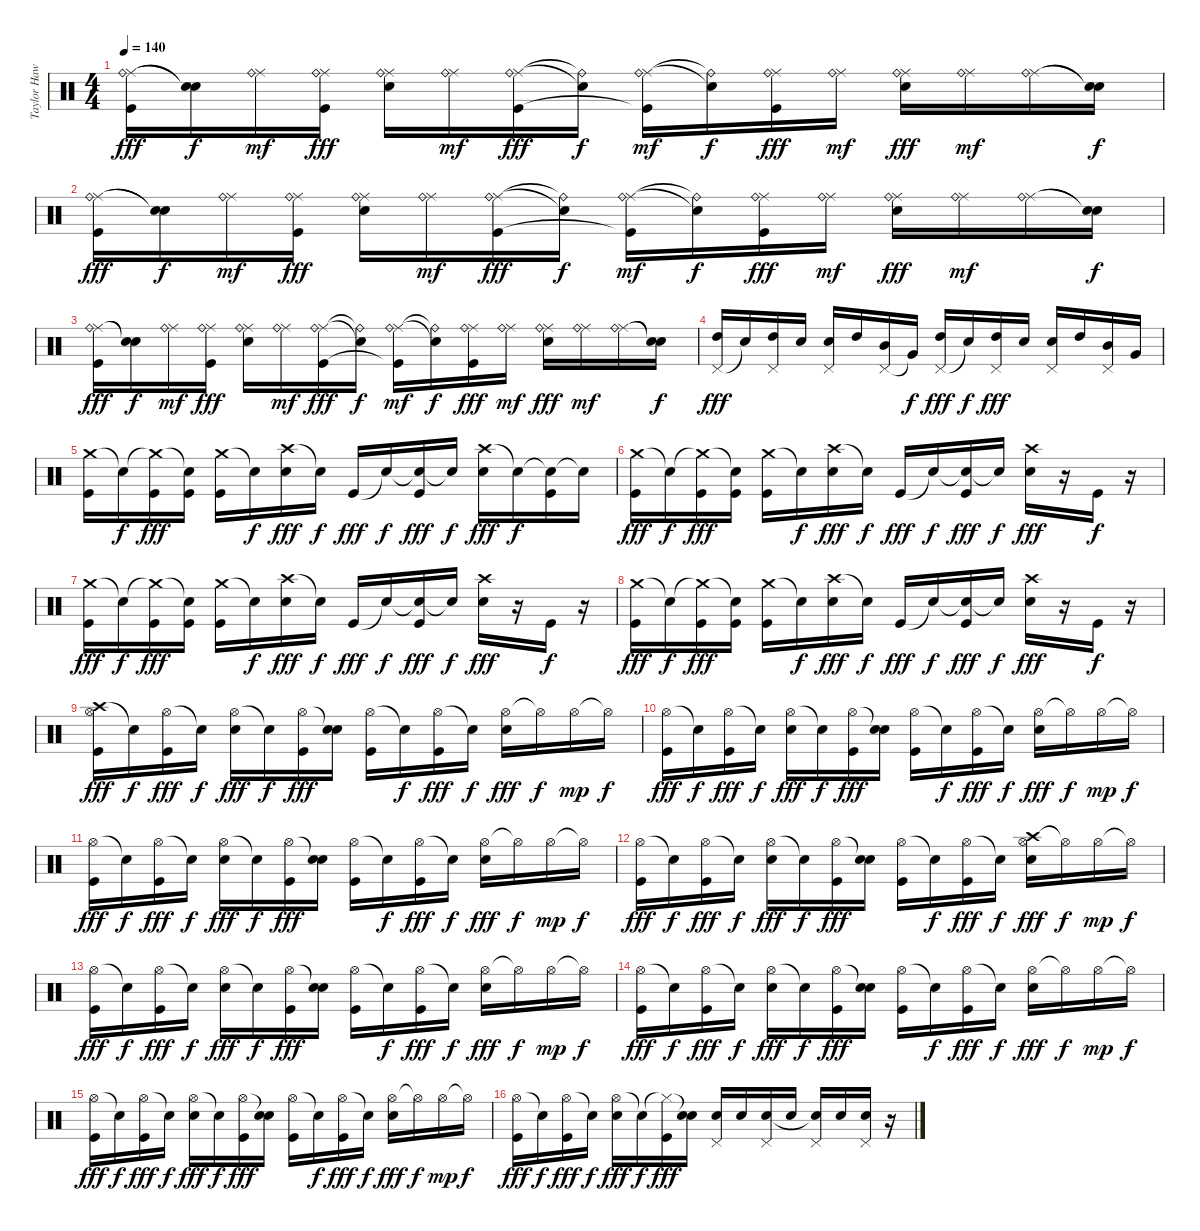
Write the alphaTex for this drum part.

\track ("Taylor Hawkings (Batería)" "Taylor Haw") {instrument percussion}
\staff {score}
\articulation defaults
\ts (4 4)
\tempo 140
\clef neutral
\ks c
("Ride (middle)" "Ride (bell)" "Kick (hit)").16{dy fff} ("Snare (hit)"{t} "Snare (hit)"{t}).16{dy f} ("Ride (middle)" "Ride (bell)").16{dy mf} ("Ride (middle)" "Ride (bell)" "Kick (hit)").16{dy fff} ("Ride (middle)" "Ride (bell)" "Electric Snare (hit)").16 ("Ride (middle)" "Ride (bell)").16{dy mf} ("Ride (middle)" "Ride (bell)" "Kick (hit)").16{dy fff} ("Snare (hit)"{t} "Ride (bell)"{t}).16{dy f} ("Ride (middle)" "Ride (bell)" "Kick (hit)"{t}).16{dy mf} ("Snare (hit)"{t} "Ride (bell)"{t}).16{dy f} ("Ride (middle)" "Ride (bell)" "Kick (hit)").16{dy fff} ("Ride (middle)" "Ride (bell)").16{dy mf} ("Ride (middle)" "Ride (bell)" "Electric Snare (hit)").16{dy fff} ("Ride (middle)" "Ride (bell)").16{dy mf} ("Ride (middle)" "Ride (bell)").16 ("Snare (hit)"{t} "Snare (hit)"{t}).16{dy f} |
("Ride (middle)" "Ride (bell)" "Kick (hit)").16{dy fff} ("Snare (hit)"{t} "Snare (hit)"{t}).16{dy f} ("Ride (middle)" "Ride (bell)").16{dy mf} ("Ride (middle)" "Ride (bell)" "Kick (hit)").16{dy fff} ("Ride (middle)" "Ride (bell)" "Electric Snare (hit)").16 ("Ride (middle)" "Ride (bell)").16{dy mf} ("Ride (middle)" "Ride (bell)" "Kick (hit)").16{dy fff} ("Snare (hit)"{t} "Ride (bell)"{t}).16{dy f} ("Ride (middle)" "Ride (bell)" "Kick (hit)"{t}).16{dy mf} ("Snare (hit)"{t} "Ride (bell)"{t}).16{dy f} ("Ride (middle)" "Ride (bell)" "Kick (hit)").16{dy fff} ("Ride (middle)" "Ride (bell)").16{dy mf} ("Ride (middle)" "Ride (bell)" "Electric Snare (hit)").16{dy fff} ("Ride (middle)" "Ride (bell)").16{dy mf} ("Ride (middle)" "Ride (bell)").16 ("Snare (hit)"{t} "Snare (hit)"{t}).16{dy f} |
("Ride (middle)" "Ride (bell)" "Kick (hit)").16{dy fff} ("Snare (hit)"{t} "Snare (hit)"{t}).16{dy f} ("Ride (middle)" "Ride (bell)").16{dy mf} ("Ride (middle)" "Ride (bell)" "Kick (hit)").16{dy fff} ("Ride (middle)" "Ride (bell)" "Electric Snare (hit)").16 ("Ride (middle)" "Ride (bell)").16{dy mf} ("Ride (middle)" "Ride (bell)" "Kick (hit)").16{dy fff} ("Snare (hit)"{t} "Ride (bell)"{t}).16{dy f} ("Ride (middle)" "Ride (bell)" "Kick (hit)"{t}).16{dy mf} ("Snare (hit)"{t} "Ride (bell)"{t}).16{dy f} ("Ride (middle)" "Ride (bell)" "Kick (hit)").16{dy fff} ("Ride (middle)" "Ride (bell)").16{dy mf} ("Ride (middle)" "Ride (bell)" "Electric Snare (hit)").16{dy fff} ("Ride (middle)" "Ride (bell)").16{dy mf} ("Ride (middle)" "Ride (bell)").16 ("Snare (hit)"{t} "Snare (hit)"{t}).16{dy f} |
("Pedal Hi-Hat (hit)" "High Tom (hit)").16{dy fff} "Snare (hit)"{t}.16 ("Pedal Hi-Hat (hit)" "High Tom (hit)").16 "Electric Snare (hit)".16 ("Pedal Hi-Hat (hit)" "Electric Snare (hit)").16 "High Tom (hit)".16 ("Pedal Hi-Hat (hit)" "Mid Tom (hit)").16 "Very Low Tom (hit)"{t}.16{dy f} ("Pedal Hi-Hat (hit)" "High Tom (hit)").16{dy fff} "Snare (hit)"{t}.16{dy f} ("Pedal Hi-Hat (hit)" "High Tom (hit)").16{dy fff} "Electric Snare (hit)".16 ("Pedal Hi-Hat (hit)" "Electric Snare (hit)").16 "High Tom (hit)".16 ("Pedal Hi-Hat (hit)" "Mid Tom (hit)").16 "Very Low Tom (hit)".16 |
("Crash medium (hit)" "Kick (hit)").16 "Snare (hit)"{t}.16{dy f} ("Crash medium (hit)"{t} "Kick (hit)").16{dy fff} ("Snare (hit)"{t} "Kick (hit)").16 ("Crash medium (hit)" "Kick (hit)").16 "Snare (hit)"{t}.16{dy f} ("Crash high (hit)" "Electric Snare (hit)").16{dy fff} "Snare (hit)"{t}.16{dy f} "Kick (hit)".16{dy fff} "Snare (hit)"{t}.16{dy f} ("Snare (hit)"{t} "Kick (hit)").16{dy fff} "Snare (hit)"{t}.16{dy f} ("Crash high (hit)" "Electric Snare (hit)").16{dy fff} "Snare (hit)"{t}.16{dy f} ("Snare (hit)"{t} "Kick (hit)").16 "Snare (hit)"{t}.16 |
("Crash medium (hit)" "Kick (hit)").16{dy fff} "Snare (hit)"{t}.16{dy f} ("Crash medium (hit)"{t} "Kick (hit)").16{dy fff} ("Snare (hit)"{t} "Kick (hit)").16 ("Crash medium (hit)" "Kick (hit)").16 "Snare (hit)"{t}.16{dy f} ("Crash high (hit)" "Electric Snare (hit)").16{dy fff} "Snare (hit)"{t}.16{dy f} "Kick (hit)".16{dy fff} "Snare (hit)"{t}.16{dy f} ("Snare (hit)"{t} "Kick (hit)").16{dy fff} "Snare (hit)"{t}.16{dy f} ("Crash high (hit)" "Electric Snare (hit)").16{dy fff} r.16 "Kick (hit)".16{dy f} r.16 |
("Crash medium (hit)" "Kick (hit)").16{dy fff} "Snare (hit)"{t}.16{dy f} ("Crash medium (hit)"{t} "Kick (hit)").16{dy fff} ("Snare (hit)"{t} "Kick (hit)").16 ("Crash medium (hit)" "Kick (hit)").16 "Snare (hit)"{t}.16{dy f} ("Crash high (hit)" "Electric Snare (hit)").16{dy fff} "Snare (hit)"{t}.16{dy f} "Kick (hit)".16{dy fff} "Snare (hit)"{t}.16{dy f} ("Snare (hit)"{t} "Kick (hit)").16{dy fff} "Snare (hit)"{t}.16{dy f} ("Crash high (hit)" "Electric Snare (hit)").16{dy fff} r.16 "Kick (hit)".16{dy f} r.16 |
("Crash medium (hit)" "Kick (hit)").16{dy fff} "Snare (hit)"{t}.16{dy f} ("Crash medium (hit)"{t} "Kick (hit)").16{dy fff} ("Snare (hit)"{t} "Kick (hit)").16 ("Crash medium (hit)" "Kick (hit)").16 "Snare (hit)"{t}.16{dy f} ("Crash high (hit)" "Electric Snare (hit)").16{dy fff} "Snare (hit)"{t}.16{dy f} "Kick (hit)".16{dy fff} "Snare (hit)"{t}.16{dy f} ("Snare (hit)"{t} "Kick (hit)").16{dy fff} "Snare (hit)"{t}.16{dy f} ("Crash high (hit)" "Electric Snare (hit)").16{dy fff} r.16 "Kick (hit)".16{dy f} r.16 |
("Crash high (hit)" "Hi-Hat (open)" "Kick (hit)").16{dy fff} "Snare (hit)"{t}.16{dy f} ("Hi-Hat (open)" "Kick (hit)").16{dy fff} "Snare (hit)"{t}.16{dy f} ("Hi-Hat (open)" "Electric Snare (hit)").16{dy fff} "Snare (hit)"{t}.16{dy f} ("Hi-Hat (open)" "Kick (hit)").16{dy fff} ("Snare (hit)"{t} "Electric Snare (hit)").16 ("Hi-Hat (open)" "Kick (hit)").16 "Snare (hit)"{t}.16{dy f} ("Hi-Hat (open)" "Kick (hit)").16{dy fff} "Snare (hit)"{t}.16{dy f} ("Hi-Hat (open)" "Electric Snare (hit)").16{dy fff} "Hi-Hat (open)"{t}.16{dy f} "Hi-Hat (open)".16{dy mp} "Hi-Hat (open)"{t}.16{dy f} |
("Hi-Hat (open)" "Kick (hit)").16{dy fff} "Snare (hit)"{t}.16{dy f} ("Hi-Hat (open)" "Kick (hit)").16{dy fff} "Snare (hit)"{t}.16{dy f} ("Hi-Hat (open)" "Electric Snare (hit)").16{dy fff} "Snare (hit)"{t}.16{dy f} ("Hi-Hat (open)" "Kick (hit)").16{dy fff} ("Snare (hit)"{t} "Electric Snare (hit)").16 ("Hi-Hat (open)" "Kick (hit)").16 "Snare (hit)"{t}.16{dy f} ("Hi-Hat (open)" "Kick (hit)").16{dy fff} "Snare (hit)"{t}.16{dy f} ("Hi-Hat (open)" "Electric Snare (hit)").16{dy fff} "Hi-Hat (open)"{t}.16{dy f} "Hi-Hat (open)".16{dy mp} "Hi-Hat (open)"{t}.16{dy f} |
("Hi-Hat (open)" "Kick (hit)").16{dy fff} "Snare (hit)"{t}.16{dy f} ("Hi-Hat (open)" "Kick (hit)").16{dy fff} "Snare (hit)"{t}.16{dy f} ("Hi-Hat (open)" "Electric Snare (hit)").16{dy fff} "Snare (hit)"{t}.16{dy f} ("Hi-Hat (open)" "Kick (hit)").16{dy fff} ("Snare (hit)"{t} "Electric Snare (hit)").16 ("Hi-Hat (open)" "Kick (hit)").16 "Snare (hit)"{t}.16{dy f} ("Hi-Hat (open)" "Kick (hit)").16{dy fff} "Snare (hit)"{t}.16{dy f} ("Hi-Hat (open)" "Electric Snare (hit)").16{dy fff} "Hi-Hat (open)"{t}.16{dy f} "Hi-Hat (open)".16{dy mp} "Hi-Hat (open)"{t}.16{dy f} |
("Hi-Hat (open)" "Kick (hit)").16{dy fff} "Snare (hit)"{t}.16{dy f} ("Hi-Hat (open)" "Kick (hit)").16{dy fff} "Snare (hit)"{t}.16{dy f} ("Hi-Hat (open)" "Electric Snare (hit)").16{dy fff} "Snare (hit)"{t}.16{dy f} ("Hi-Hat (open)" "Kick (hit)").16{dy fff} ("Snare (hit)"{t} "Electric Snare (hit)").16 ("Hi-Hat (open)" "Kick (hit)").16 "Snare (hit)"{t}.16{dy f} ("Hi-Hat (open)" "Kick (hit)").16{dy fff} "Snare (hit)"{t}.16{dy f} ("Crash high (hit)" "Hi-Hat (open)" "Electric Snare (hit)").16{dy fff} "Hi-Hat (open)"{t}.16{dy f} "Hi-Hat (open)".16{dy mp} "Hi-Hat (open)"{t}.16{dy f} |
("Hi-Hat (open)" "Kick (hit)").16{dy fff} "Snare (hit)"{t}.16{dy f} ("Hi-Hat (open)" "Kick (hit)").16{dy fff} "Snare (hit)"{t}.16{dy f} ("Hi-Hat (open)" "Electric Snare (hit)").16{dy fff} "Snare (hit)"{t}.16{dy f} ("Hi-Hat (open)" "Kick (hit)").16{dy fff} ("Snare (hit)"{t} "Electric Snare (hit)").16 ("Hi-Hat (open)" "Kick (hit)").16 "Snare (hit)"{t}.16{dy f} ("Hi-Hat (open)" "Kick (hit)").16{dy fff} "Snare (hit)"{t}.16{dy f} ("Hi-Hat (open)" "Electric Snare (hit)").16{dy fff} "Hi-Hat (open)"{t}.16{dy f} "Hi-Hat (open)".16{dy mp} "Hi-Hat (open)"{t}.16{dy f} |
("Hi-Hat (open)" "Kick (hit)").16{dy fff} "Snare (hit)"{t}.16{dy f} ("Hi-Hat (open)" "Kick (hit)").16{dy fff} "Snare (hit)"{t}.16{dy f} ("Hi-Hat (open)" "Electric Snare (hit)").16{dy fff} "Snare (hit)"{t}.16{dy f} ("Hi-Hat (open)" "Kick (hit)").16{dy fff} ("Snare (hit)"{t} "Electric Snare (hit)").16 ("Hi-Hat (open)" "Kick (hit)").16 "Snare (hit)"{t}.16{dy f} ("Hi-Hat (open)" "Kick (hit)").16{dy fff} "Snare (hit)"{t}.16{dy f} ("Hi-Hat (open)" "Electric Snare (hit)").16{dy fff} "Hi-Hat (open)"{t}.16{dy f} "Hi-Hat (open)".16{dy mp} "Hi-Hat (open)"{t}.16{dy f} |
("Hi-Hat (open)" "Kick (hit)").16{dy fff} "Snare (hit)"{t}.16{dy f} ("Hi-Hat (open)" "Kick (hit)").16{dy fff} "Snare (hit)"{t}.16{dy f} ("Hi-Hat (open)" "Electric Snare (hit)").16{dy fff} "Snare (hit)"{t}.16{dy f} ("Hi-Hat (open)" "Kick (hit)").16{dy fff} ("Snare (hit)"{t} "Electric Snare (hit)").16 ("Hi-Hat (open)" "Kick (hit)").16 "Snare (hit)"{t}.16{dy f} ("Hi-Hat (open)" "Kick (hit)").16{dy fff} "Snare (hit)"{t}.16{dy f} ("Hi-Hat (open)" "Electric Snare (hit)").16{dy fff} "Hi-Hat (open)"{t}.16{dy f} "Hi-Hat (open)".16{dy mp} "Hi-Hat (open)"{t}.16{dy f} |
("Hi-Hat (open)" "Kick (hit)").16{dy fff} "Snare (hit)"{t}.16{dy f} ("Hi-Hat (open)" "Kick (hit)").16{dy fff} "Snare (hit)"{t}.16{dy f} ("Hi-Hat (open)" "Electric Snare (hit)").16{dy fff} "Snare (hit)"{t}.16{dy f} ("Hi-Hat (closed)"{t} "Kick (hit)").16{dy fff} ("Snare (hit)"{t} "Electric Snare (hit)").16 ("Pedal Hi-Hat (hit)" "Electric Snare (hit)").16 "Electric Snare (hit)".16 ("Pedal Hi-Hat (hit)" "Electric Snare (hit)").16 "Electric Snare (hit)".16 ("Pedal Hi-Hat (hit)" "Snare (hit)"{t}).16 "Electric Snare (hit)".16 ("Pedal Hi-Hat (hit)" "Electric Snare (hit)").16 r.16
